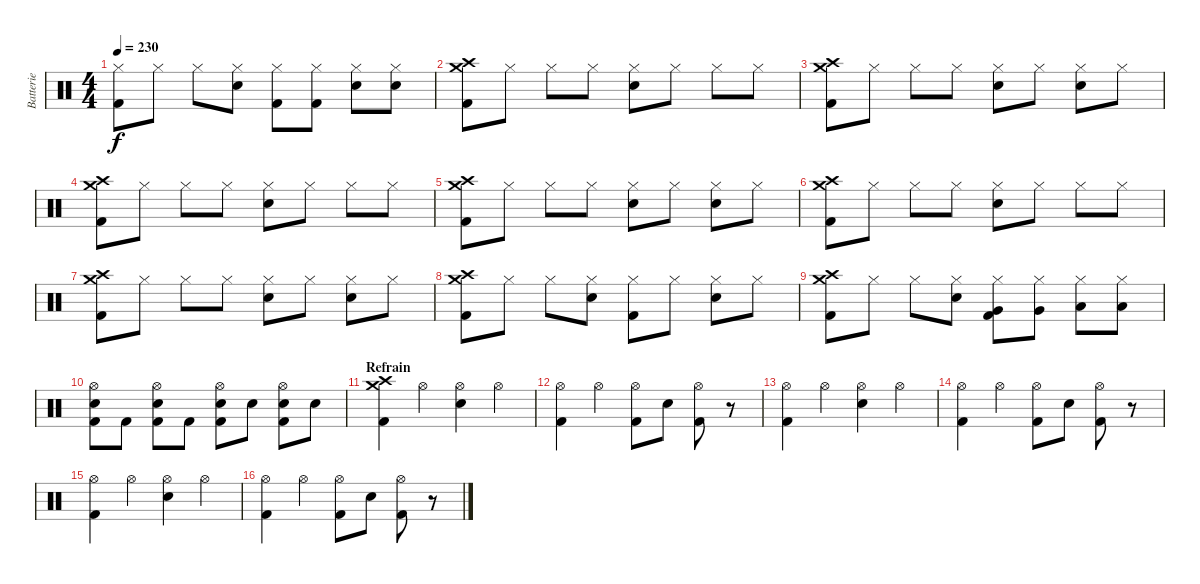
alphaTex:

\track ("Batterie" "Batterie") {instrument percussion}
\staff {score}
\articulation defaults
\ts (4 4)
\tempo 230
\clef neutral
\ks c
("Hi-Hat (closed)" "Kick (hit) 2").8{dy f} "Hi-Hat (closed)".8 "Hi-Hat (closed)".8 ("Hi-Hat (closed)" "Electric Snare (hit)").8 ("Hi-Hat (closed)" "Kick (hit) 2").8 ("Hi-Hat (closed)" "Kick (hit) 2").8 ("Hi-Hat (closed)" "Electric Snare (hit)").8 ("Hi-Hat (closed)" "Electric Snare (hit)").8 |
("Crash high (hit)" "Crash medium (hit)" "Kick (hit) 2").8 "Hi-Hat (closed)".8 "Hi-Hat (closed)".8 "Hi-Hat (closed)".8 ("Hi-Hat (closed)" "Electric Snare (hit)").8 "Hi-Hat (closed)".8 "Hi-Hat (closed)".8 "Hi-Hat (closed)".8 |
("Crash high (hit)" "Crash medium (hit)" "Kick (hit) 2").8 "Hi-Hat (closed)".8 "Hi-Hat (closed)".8 "Hi-Hat (closed)".8 ("Hi-Hat (closed)" "Electric Snare (hit)").8 "Hi-Hat (closed)".8 ("Hi-Hat (closed)" "Electric Snare (hit)").8 "Hi-Hat (closed)".8 |
("Crash high (hit)" "Crash medium (hit)" "Kick (hit) 2").8 "Hi-Hat (closed)".8 "Hi-Hat (closed)".8 "Hi-Hat (closed)".8 ("Hi-Hat (closed)" "Electric Snare (hit)").8 "Hi-Hat (closed)".8 "Hi-Hat (closed)".8 "Hi-Hat (closed)".8 |
("Crash high (hit)" "Crash medium (hit)" "Kick (hit) 2").8 "Hi-Hat (closed)".8 "Hi-Hat (closed)".8 "Hi-Hat (closed)".8 ("Hi-Hat (closed)" "Electric Snare (hit)").8 "Hi-Hat (closed)".8 ("Hi-Hat (closed)" "Electric Snare (hit)").8 "Hi-Hat (closed)".8 |
("Crash high (hit)" "Crash medium (hit)" "Kick (hit) 2").8 "Hi-Hat (closed)".8 "Hi-Hat (closed)".8 "Hi-Hat (closed)".8 ("Hi-Hat (closed)" "Electric Snare (hit)").8 "Hi-Hat (closed)".8 "Hi-Hat (closed)".8 "Hi-Hat (closed)".8 |
("Crash high (hit)" "Crash medium (hit)" "Kick (hit) 2").8 "Hi-Hat (closed)".8 "Hi-Hat (closed)".8 "Hi-Hat (closed)".8 ("Hi-Hat (closed)" "Electric Snare (hit)").8 "Hi-Hat (closed)".8 ("Hi-Hat (closed)" "Electric Snare (hit)").8 "Hi-Hat (closed)".8 |
("Crash high (hit)" "Crash medium (hit)" "Kick (hit) 2").8 "Hi-Hat (closed)".8 "Hi-Hat (closed)".8 ("Hi-Hat (closed)" "Electric Snare (hit)").8 ("Hi-Hat (closed)" "Kick (hit) 2").8 "Hi-Hat (closed)".8 ("Hi-Hat (closed)" "Electric Snare (hit)").8 "Hi-Hat (closed)".8 |
("Crash high (hit)" "Crash medium (hit)" "Kick (hit) 2").8 "Hi-Hat (closed)".8 "Hi-Hat (closed)".8 ("Hi-Hat (closed)" "Electric Snare (hit)").8 ("Hi-Hat (closed)" "Very Low Tom (hit)" "Kick (hit) 2").8 ("Hi-Hat (closed)" "Very Low Tom (hit)").8 ("Hi-Hat (closed)" "Low Floor Tom (hit)").8 ("Hi-Hat (closed)" "Low Floor Tom (hit)").8 |
("Hi-Hat (open)" "Electric Snare (hit)" "Kick (hit) 2").8 "Kick (hit) 2".8 ("Hi-Hat (open)" "Electric Snare (hit)" "Kick (hit) 2").8 "Kick (hit) 2".8 ("Hi-Hat (open)" "Electric Snare (hit)" "Kick (hit) 2").8 "Electric Snare (hit)".8 ("Hi-Hat (open)" "Electric Snare (hit)" "Kick (hit) 2").8 "Electric Snare (hit)".8 |
\section ("" "Refrain")
("Crash high (hit)" "Crash medium (hit)" "Kick (hit) 2").4 "Hi-Hat (open)".4 ("Hi-Hat (open)" "Electric Snare (hit)").4 "Hi-Hat (open)".4 |
("Hi-Hat (open)" "Kick (hit) 2").4 "Hi-Hat (open)".4 ("Hi-Hat (open)" "Kick (hit) 2").8 "Electric Snare (hit)".8 ("Hi-Hat (open)" "Kick (hit) 2").8 r.8 |
("Hi-Hat (open)" "Kick (hit) 2").4 "Hi-Hat (open)".4 ("Hi-Hat (open)" "Electric Snare (hit)").4 "Hi-Hat (open)".4 |
("Hi-Hat (open)" "Kick (hit) 2").4 "Hi-Hat (open)".4 ("Hi-Hat (open)" "Kick (hit) 2").8 "Electric Snare (hit)".8 ("Hi-Hat (open)" "Kick (hit) 2").8 r.8 |
("Hi-Hat (open)" "Kick (hit) 2").4 "Hi-Hat (open)".4 ("Hi-Hat (open)" "Electric Snare (hit)").4 "Hi-Hat (open)".4 |
("Hi-Hat (open)" "Kick (hit) 2").4 "Hi-Hat (open)".4 ("Hi-Hat (open)" "Kick (hit) 2").8 "Electric Snare (hit)".8 ("Hi-Hat (open)" "Kick (hit) 2").8 r.8
